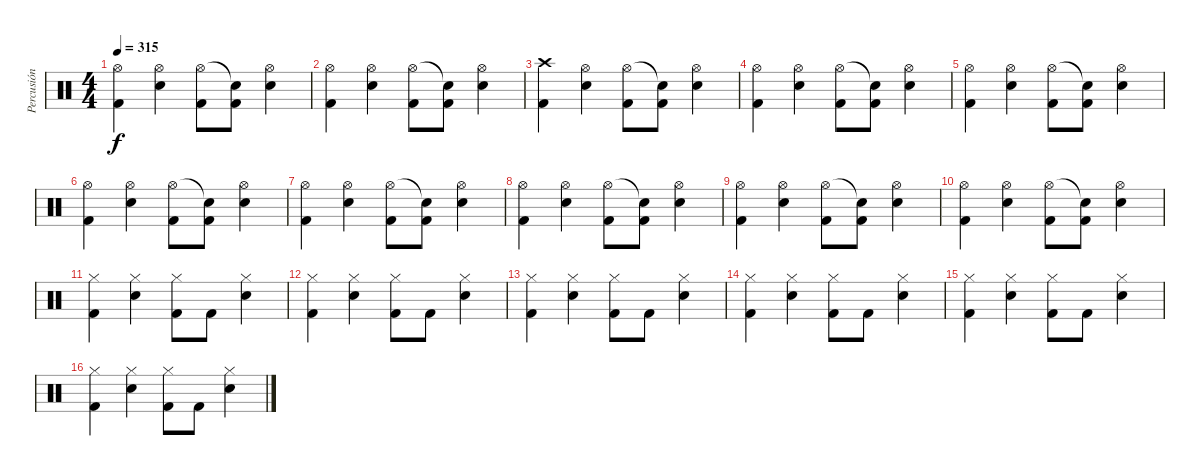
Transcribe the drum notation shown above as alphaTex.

\track ("Percusión" "Percusión") {instrument percussion}
\staff {score}
\articulation defaults
\ts (4 4)
\tempo 315
\clef neutral
\ks c
("Hi-Hat (open)" "Kick (hit) 2").4{dy f} ("Hi-Hat (open)" "Snare (hit) 2").4 ("Hi-Hat (open)" "Kick (hit) 2").8 ("Snare (hit)"{t} "Kick (hit) 2").8 ("Hi-Hat (open)" "Snare (hit) 2").4 |
("Hi-Hat (open)" "Kick (hit) 2").4 ("Hi-Hat (open)" "Snare (hit) 2").4 ("Hi-Hat (open)" "Kick (hit) 2").8 ("Snare (hit)"{t} "Kick (hit) 2").8 ("Hi-Hat (open)" "Snare (hit) 2").4 |
("Crash high (hit)" "Kick (hit) 2").4 ("Hi-Hat (open)" "Snare (hit) 2").4 ("Hi-Hat (open)" "Kick (hit) 2").8 ("Snare (hit)"{t} "Kick (hit) 2").8 ("Hi-Hat (open)" "Snare (hit) 2").4 |
("Hi-Hat (open)" "Kick (hit) 2").4 ("Hi-Hat (open)" "Snare (hit) 2").4 ("Hi-Hat (open)" "Kick (hit) 2").8 ("Snare (hit)"{t} "Kick (hit) 2").8 ("Hi-Hat (open)" "Snare (hit) 2").4 |
("Hi-Hat (open)" "Kick (hit) 2").4 ("Hi-Hat (open)" "Snare (hit) 2").4 ("Hi-Hat (open)" "Kick (hit) 2").8 ("Snare (hit)"{t} "Kick (hit) 2").8 ("Hi-Hat (open)" "Snare (hit) 2").4 |
("Hi-Hat (open)" "Kick (hit) 2").4 ("Hi-Hat (open)" "Snare (hit) 2").4 ("Hi-Hat (open)" "Kick (hit) 2").8 ("Snare (hit)"{t} "Kick (hit) 2").8 ("Hi-Hat (open)" "Snare (hit) 2").4 |
("Hi-Hat (open)" "Kick (hit) 2").4 ("Hi-Hat (open)" "Snare (hit) 2").4 ("Hi-Hat (open)" "Kick (hit) 2").8 ("Snare (hit)"{t} "Kick (hit) 2").8 ("Hi-Hat (open)" "Snare (hit) 2").4 |
("Hi-Hat (open)" "Kick (hit) 2").4 ("Hi-Hat (open)" "Snare (hit) 2").4 ("Hi-Hat (open)" "Kick (hit) 2").8 ("Snare (hit)"{t} "Kick (hit) 2").8 ("Hi-Hat (open)" "Snare (hit) 2").4 |
("Hi-Hat (open)" "Kick (hit) 2").4 ("Hi-Hat (open)" "Snare (hit) 2").4 ("Hi-Hat (open)" "Kick (hit) 2").8 ("Snare (hit)"{t} "Kick (hit) 2").8 ("Hi-Hat (open)" "Snare (hit) 2").4 |
("Hi-Hat (open)" "Kick (hit) 2").4 ("Hi-Hat (open)" "Snare (hit) 2").4 ("Hi-Hat (open)" "Kick (hit) 2").8 ("Snare (hit)"{t} "Kick (hit) 2").8 ("Hi-Hat (open)" "Snare (hit) 2").4 |
("Hi-Hat (closed)" "Kick (hit) 2").4 ("Hi-Hat (closed)" "Snare (hit) 2").4 ("Hi-Hat (closed)" "Kick (hit) 2").8 "Kick (hit) 2".8 ("Hi-Hat (closed)" "Snare (hit) 2").4 |
("Hi-Hat (closed)" "Kick (hit) 2").4 ("Hi-Hat (closed)" "Snare (hit) 2").4 ("Hi-Hat (closed)" "Kick (hit) 2").8 "Kick (hit) 2".8 ("Hi-Hat (closed)" "Snare (hit) 2").4 |
("Hi-Hat (closed)" "Kick (hit) 2").4 ("Hi-Hat (closed)" "Snare (hit) 2").4 ("Hi-Hat (closed)" "Kick (hit) 2").8 "Kick (hit) 2".8 ("Hi-Hat (closed)" "Snare (hit) 2").4 |
("Hi-Hat (closed)" "Kick (hit) 2").4 ("Hi-Hat (closed)" "Snare (hit) 2").4 ("Hi-Hat (closed)" "Kick (hit) 2").8 "Kick (hit) 2".8 ("Hi-Hat (closed)" "Snare (hit) 2").4 |
("Hi-Hat (closed)" "Kick (hit) 2").4 ("Hi-Hat (closed)" "Snare (hit) 2").4 ("Hi-Hat (closed)" "Kick (hit) 2").8 "Kick (hit) 2".8 ("Hi-Hat (closed)" "Snare (hit) 2").4 |
("Hi-Hat (closed)" "Kick (hit) 2").4 ("Hi-Hat (closed)" "Snare (hit) 2").4 ("Hi-Hat (closed)" "Kick (hit) 2").8 "Kick (hit) 2".8 ("Hi-Hat (closed)" "Snare (hit) 2").4
